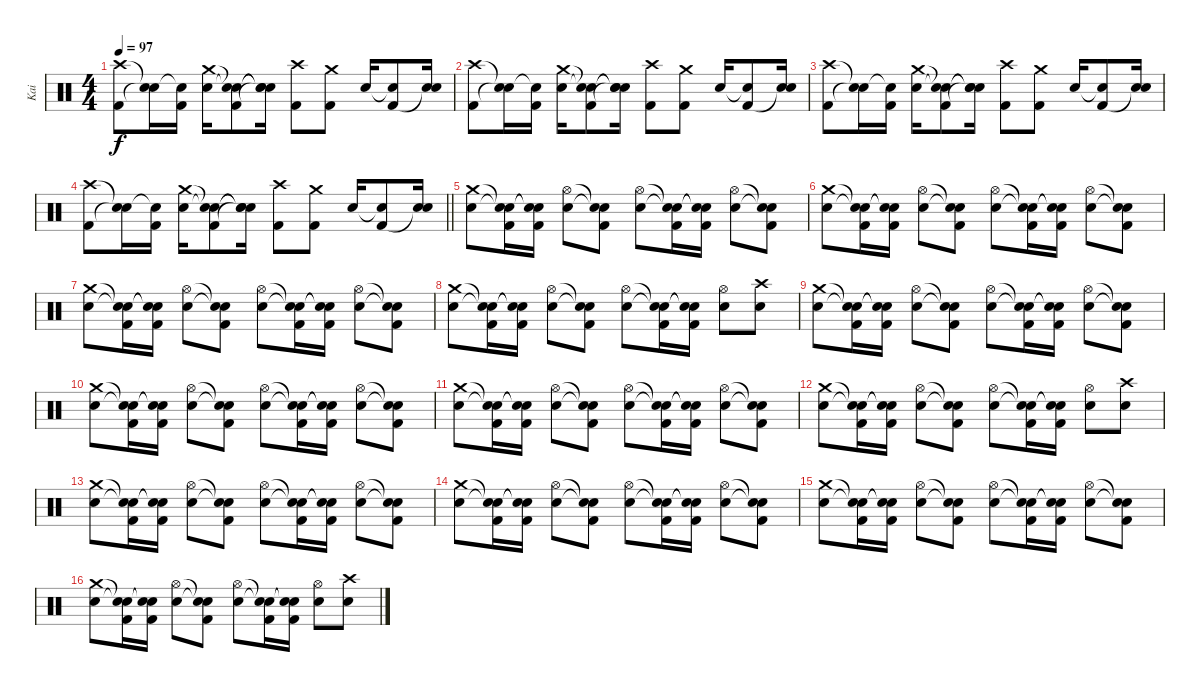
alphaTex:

\track ("Kai" "Kai") {instrument percussion}
\staff {score}
\articulation defaults
\ts (4 4)
\tempo 97
\clef neutral
\ks c
("Crash high (hit)" "Kick (hit) 2").8{dy f} ("Snare (hit)"{t} "Snare (hit)"{t}).16 ("Snare (hit)"{t} "Kick (hit) 2").16 ("Crash medium (hit)" "Snare (hit) 2").16 ("Snare (hit)"{t} "Snare (hit)"{t} "Kick (hit) 2").8 ("Snare (hit)"{t} "Snare (hit)"{t} "Snare (hit)"{t}).16 ("Crash high (hit)" "Kick (hit) 2").8 ("Crash medium (hit)" "Kick (hit) 2").8 "Snare (hit) 2".16 ("Snare (hit)"{t} "Kick (hit) 2").8 ("Snare (hit) 2" "Snare (hit)"{t}).16 |
("Crash high (hit)" "Kick (hit) 2").8 ("Snare (hit)"{t} "Snare (hit)"{t}).16 ("Snare (hit)"{t} "Kick (hit) 2").16 ("Crash medium (hit)" "Snare (hit) 2").16 ("Snare (hit)"{t} "Snare (hit)"{t} "Kick (hit) 2").8 ("Snare (hit)"{t} "Snare (hit)"{t} "Snare (hit)"{t}).16 ("Crash high (hit)" "Kick (hit) 2").8 ("Crash medium (hit)" "Kick (hit) 2").8 "Snare (hit) 2".16 ("Snare (hit)"{t} "Kick (hit) 2").8 ("Snare (hit) 2" "Snare (hit)"{t}).16 |
("Crash high (hit)" "Kick (hit) 2").8 ("Snare (hit)"{t} "Snare (hit)"{t}).16 ("Snare (hit)"{t} "Kick (hit) 2").16 ("Crash medium (hit)" "Snare (hit) 2").16 ("Snare (hit)"{t} "Snare (hit)"{t} "Kick (hit) 2").8 ("Snare (hit)"{t} "Snare (hit)"{t} "Snare (hit)"{t}).16 ("Crash high (hit)" "Kick (hit) 2").8 ("Crash medium (hit)" "Kick (hit) 2").8 "Snare (hit) 2".16 ("Snare (hit)"{t} "Kick (hit) 2").8 ("Snare (hit) 2" "Snare (hit)"{t}).16 |
\barLineRight lightlight
("Crash high (hit)" "Kick (hit) 2").8 ("Snare (hit)"{t} "Snare (hit)"{t}).16 ("Snare (hit)"{t} "Kick (hit) 2").16 ("Crash medium (hit)" "Snare (hit) 2").16 ("Snare (hit)"{t} "Snare (hit)"{t} "Kick (hit) 2").8 ("Snare (hit)"{t} "Snare (hit)"{t} "Snare (hit)"{t}).16 ("Crash high (hit)" "Kick (hit) 2").8 ("Crash medium (hit)" "Kick (hit) 2").8 "Snare (hit) 2".16 ("Snare (hit)"{t} "Kick (hit) 2").8 ("Snare (hit) 2" "Snare (hit)"{t}).16 |
("Crash medium (hit)" "Snare (hit) 2").8 ("Snare (hit)"{t} "Snare (hit)"{t} "Kick (hit) 2").16 ("Snare (hit)"{t} "Snare (hit)"{t} "Kick (hit) 2").16 ("Hi-Hat (open)" "Snare (hit) 2").8 ("Snare (hit)"{t} "Snare (hit)"{t} "Kick (hit) 2").8 ("Hi-Hat (open)" "Snare (hit) 2").8 ("Snare (hit)"{t} "Snare (hit)"{t} "Kick (hit) 2").16 ("Snare (hit)"{t} "Snare (hit)"{t} "Kick (hit) 2").16 ("Hi-Hat (open)" "Snare (hit) 2").8 ("Snare (hit)"{t} "Snare (hit)"{t} "Kick (hit) 2").8 |
("Crash medium (hit)" "Snare (hit) 2").8 ("Snare (hit)"{t} "Snare (hit)"{t} "Kick (hit) 2").16 ("Snare (hit)"{t} "Snare (hit)"{t} "Kick (hit) 2").16 ("Hi-Hat (open)" "Snare (hit) 2").8 ("Snare (hit)"{t} "Snare (hit)"{t} "Kick (hit) 2").8 ("Hi-Hat (open)" "Snare (hit) 2").8 ("Snare (hit)"{t} "Snare (hit)"{t} "Kick (hit) 2").16 ("Snare (hit)"{t} "Snare (hit)"{t} "Kick (hit) 2").16 ("Hi-Hat (open)" "Snare (hit) 2").8 ("Snare (hit)"{t} "Snare (hit)"{t} "Kick (hit) 2").8 |
("Crash medium (hit)" "Snare (hit) 2").8 ("Snare (hit)"{t} "Snare (hit)"{t} "Kick (hit) 2").16 ("Snare (hit)"{t} "Snare (hit)"{t} "Kick (hit) 2").16 ("Hi-Hat (open)" "Snare (hit) 2").8 ("Snare (hit)"{t} "Snare (hit)"{t} "Kick (hit) 2").8 ("Hi-Hat (open)" "Snare (hit) 2").8 ("Snare (hit)"{t} "Snare (hit)"{t} "Kick (hit) 2").16 ("Snare (hit)"{t} "Snare (hit)"{t} "Kick (hit) 2").16 ("Hi-Hat (open)" "Snare (hit) 2").8 ("Snare (hit)"{t} "Snare (hit)"{t} "Kick (hit) 2").8 |
("Crash medium (hit)" "Snare (hit) 2").8 ("Snare (hit)"{t} "Snare (hit)"{t} "Kick (hit) 2").16 ("Snare (hit)"{t} "Snare (hit)"{t} "Kick (hit) 2").16 ("Hi-Hat (open)" "Snare (hit) 2").8 ("Snare (hit)"{t} "Snare (hit)"{t} "Kick (hit) 2").8 ("Hi-Hat (open)" "Snare (hit) 2").8 ("Snare (hit)"{t} "Snare (hit)"{t} "Kick (hit) 2").16 ("Snare (hit)"{t} "Snare (hit)"{t} "Kick (hit) 2").16 ("Hi-Hat (open)" "Snare (hit) 2").8 ("Crash high (hit)" "Snare (hit) 2").8 |
("Crash medium (hit)" "Snare (hit) 2").8 ("Snare (hit)"{t} "Snare (hit)"{t} "Kick (hit) 2").16 ("Snare (hit)"{t} "Snare (hit)"{t} "Kick (hit) 2").16 ("Hi-Hat (open)" "Snare (hit) 2").8 ("Snare (hit)"{t} "Snare (hit)"{t} "Kick (hit) 2").8 ("Hi-Hat (open)" "Snare (hit) 2").8 ("Snare (hit)"{t} "Snare (hit)"{t} "Kick (hit) 2").16 ("Snare (hit)"{t} "Snare (hit)"{t} "Kick (hit) 2").16 ("Hi-Hat (open)" "Snare (hit) 2").8 ("Snare (hit)"{t} "Snare (hit)"{t} "Kick (hit) 2").8 |
("Crash medium (hit)" "Snare (hit) 2").8 ("Snare (hit)"{t} "Snare (hit)"{t} "Kick (hit) 2").16 ("Snare (hit)"{t} "Snare (hit)"{t} "Kick (hit) 2").16 ("Hi-Hat (open)" "Snare (hit) 2").8 ("Snare (hit)"{t} "Snare (hit)"{t} "Kick (hit) 2").8 ("Hi-Hat (open)" "Snare (hit) 2").8 ("Snare (hit)"{t} "Snare (hit)"{t} "Kick (hit) 2").16 ("Snare (hit)"{t} "Snare (hit)"{t} "Kick (hit) 2").16 ("Hi-Hat (open)" "Snare (hit) 2").8 ("Snare (hit)"{t} "Snare (hit)"{t} "Kick (hit) 2").8 |
("Crash medium (hit)" "Snare (hit) 2").8 ("Snare (hit)"{t} "Snare (hit)"{t} "Kick (hit) 2").16 ("Snare (hit)"{t} "Snare (hit)"{t} "Kick (hit) 2").16 ("Hi-Hat (open)" "Snare (hit) 2").8 ("Snare (hit)"{t} "Snare (hit)"{t} "Kick (hit) 2").8 ("Hi-Hat (open)" "Snare (hit) 2").8 ("Snare (hit)"{t} "Snare (hit)"{t} "Kick (hit) 2").16 ("Snare (hit)"{t} "Snare (hit)"{t} "Kick (hit) 2").16 ("Hi-Hat (open)" "Snare (hit) 2").8 ("Snare (hit)"{t} "Snare (hit)"{t} "Kick (hit) 2").8 |
("Crash medium (hit)" "Snare (hit) 2").8 ("Snare (hit)"{t} "Snare (hit)"{t} "Kick (hit) 2").16 ("Snare (hit)"{t} "Snare (hit)"{t} "Kick (hit) 2").16 ("Hi-Hat (open)" "Snare (hit) 2").8 ("Snare (hit)"{t} "Snare (hit)"{t} "Kick (hit) 2").8 ("Hi-Hat (open)" "Snare (hit) 2").8 ("Snare (hit)"{t} "Snare (hit)"{t} "Kick (hit) 2").16 ("Snare (hit)"{t} "Snare (hit)"{t} "Kick (hit) 2").16 ("Hi-Hat (open)" "Snare (hit) 2").8 ("Crash high (hit)" "Snare (hit) 2").8 |
("Crash medium (hit)" "Snare (hit) 2").8 ("Snare (hit)"{t} "Snare (hit)"{t} "Kick (hit) 2").16 ("Snare (hit)"{t} "Snare (hit)"{t} "Kick (hit) 2").16 ("Hi-Hat (open)" "Snare (hit) 2").8 ("Snare (hit)"{t} "Snare (hit)"{t} "Kick (hit) 2").8 ("Hi-Hat (open)" "Snare (hit) 2").8 ("Snare (hit)"{t} "Snare (hit)"{t} "Kick (hit) 2").16 ("Snare (hit)"{t} "Snare (hit)"{t} "Kick (hit) 2").16 ("Hi-Hat (open)" "Snare (hit) 2").8 ("Snare (hit)"{t} "Snare (hit)"{t} "Kick (hit) 2").8 |
("Crash medium (hit)" "Snare (hit) 2").8 ("Snare (hit)"{t} "Snare (hit)"{t} "Kick (hit) 2").16 ("Snare (hit)"{t} "Snare (hit)"{t} "Kick (hit) 2").16 ("Hi-Hat (open)" "Snare (hit) 2").8 ("Snare (hit)"{t} "Snare (hit)"{t} "Kick (hit) 2").8 ("Hi-Hat (open)" "Snare (hit) 2").8 ("Snare (hit)"{t} "Snare (hit)"{t} "Kick (hit) 2").16 ("Snare (hit)"{t} "Snare (hit)"{t} "Kick (hit) 2").16 ("Hi-Hat (open)" "Snare (hit) 2").8 ("Snare (hit)"{t} "Snare (hit)"{t} "Kick (hit) 2").8 |
("Crash medium (hit)" "Snare (hit) 2").8 ("Snare (hit)"{t} "Snare (hit)"{t} "Kick (hit) 2").16 ("Snare (hit)"{t} "Snare (hit)"{t} "Kick (hit) 2").16 ("Hi-Hat (open)" "Snare (hit) 2").8 ("Snare (hit)"{t} "Snare (hit)"{t} "Kick (hit) 2").8 ("Hi-Hat (open)" "Snare (hit) 2").8 ("Snare (hit)"{t} "Snare (hit)"{t} "Kick (hit) 2").16 ("Snare (hit)"{t} "Snare (hit)"{t} "Kick (hit) 2").16 ("Hi-Hat (open)" "Snare (hit) 2").8 ("Snare (hit)"{t} "Snare (hit)"{t} "Kick (hit) 2").8 |
("Crash medium (hit)" "Snare (hit) 2").8 ("Snare (hit)"{t} "Snare (hit)"{t} "Kick (hit) 2").16 ("Snare (hit)"{t} "Snare (hit)"{t} "Kick (hit) 2").16 ("Hi-Hat (open)" "Snare (hit) 2").8 ("Snare (hit)"{t} "Snare (hit)"{t} "Kick (hit) 2").8 ("Hi-Hat (open)" "Snare (hit) 2").8 ("Snare (hit)"{t} "Snare (hit)"{t} "Kick (hit) 2").16 ("Snare (hit)"{t} "Snare (hit)"{t} "Kick (hit) 2").16 ("Hi-Hat (open)" "Snare (hit) 2").8 ("Crash high (hit)" "Snare (hit) 2").8
